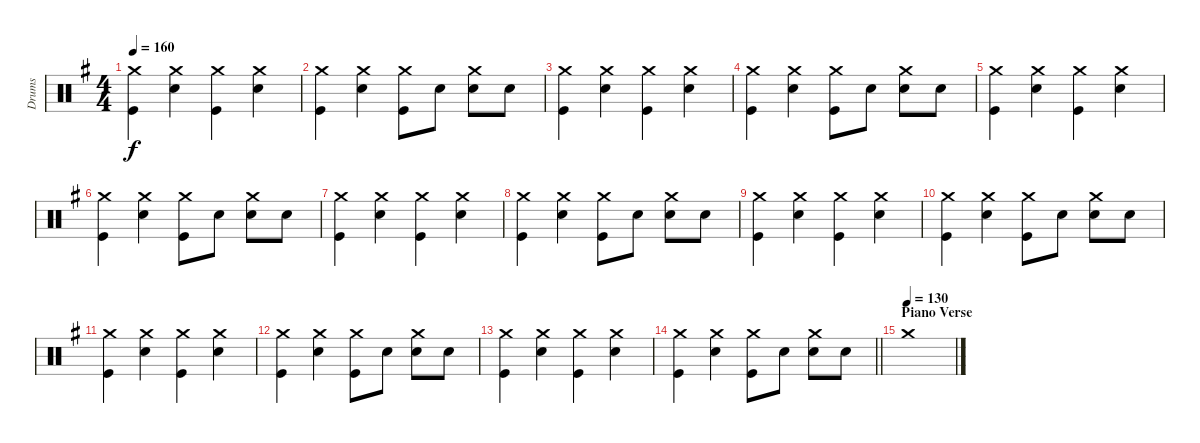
\track ("Drums" "Drums") {instrument percussion}
\staff {score}
\articulation defaults
\ts (4 4)
\tempo 160
\clef neutral
\ks eminor
("Crash medium (hit)" "Kick (hit)").4{dy f} ("Crash medium (hit)" "Snare (hit) 2").4 ("Crash medium (hit)" "Kick (hit)").4 ("Crash medium (hit)" "Snare (hit) 2").4 |
("Crash medium (hit)" "Kick (hit)").4 ("Crash medium (hit)" "Snare (hit) 2").4 ("Crash medium (hit)" "Kick (hit)").8 "Snare (hit) 2".8 ("Crash medium (hit)" "Snare (hit) 2").8 "Snare (hit) 2".8 |
("Crash medium (hit)" "Kick (hit)").4 ("Crash medium (hit)" "Snare (hit) 2").4 ("Crash medium (hit)" "Kick (hit)").4 ("Crash medium (hit)" "Snare (hit) 2").4 |
("Crash medium (hit)" "Kick (hit)").4 ("Crash medium (hit)" "Snare (hit) 2").4 ("Crash medium (hit)" "Kick (hit)").8 "Snare (hit) 2".8 ("Crash medium (hit)" "Snare (hit) 2").8 "Snare (hit) 2".8 |
("Crash medium (hit)" "Kick (hit)").4 ("Crash medium (hit)" "Snare (hit) 2").4 ("Crash medium (hit)" "Kick (hit)").4 ("Crash medium (hit)" "Snare (hit) 2").4 |
("Crash medium (hit)" "Kick (hit)").4 ("Crash medium (hit)" "Snare (hit) 2").4 ("Crash medium (hit)" "Kick (hit)").8 "Snare (hit) 2".8 ("Crash medium (hit)" "Snare (hit) 2").8 "Snare (hit) 2".8 |
("Crash medium (hit)" "Kick (hit)").4 ("Crash medium (hit)" "Snare (hit) 2").4 ("Crash medium (hit)" "Kick (hit)").4 ("Crash medium (hit)" "Snare (hit) 2").4 |
("Crash medium (hit)" "Kick (hit)").4 ("Crash medium (hit)" "Snare (hit) 2").4 ("Crash medium (hit)" "Kick (hit)").8 "Snare (hit) 2".8 ("Crash medium (hit)" "Snare (hit) 2").8 "Snare (hit) 2".8 |
("Crash medium (hit)" "Kick (hit)").4 ("Crash medium (hit)" "Snare (hit) 2").4 ("Crash medium (hit)" "Kick (hit)").4 ("Crash medium (hit)" "Snare (hit) 2").4 |
("Crash medium (hit)" "Kick (hit)").4 ("Crash medium (hit)" "Snare (hit) 2").4 ("Crash medium (hit)" "Kick (hit)").8 "Snare (hit) 2".8 ("Crash medium (hit)" "Snare (hit) 2").8 "Snare (hit) 2".8 |
("Crash medium (hit)" "Kick (hit)").4 ("Crash medium (hit)" "Snare (hit) 2").4 ("Crash medium (hit)" "Kick (hit)").4 ("Crash medium (hit)" "Snare (hit) 2").4 |
("Crash medium (hit)" "Kick (hit)").4 ("Crash medium (hit)" "Snare (hit) 2").4 ("Crash medium (hit)" "Kick (hit)").8 "Snare (hit) 2".8 ("Crash medium (hit)" "Snare (hit) 2").8 "Snare (hit) 2".8 |
("Crash medium (hit)" "Kick (hit)").4 ("Crash medium (hit)" "Snare (hit) 2").4 ("Crash medium (hit)" "Kick (hit)").4 ("Crash medium (hit)" "Snare (hit) 2").4 |
\barLineRight lightlight
("Crash medium (hit)" "Kick (hit)").4 ("Crash medium (hit)" "Snare (hit) 2").4 ("Crash medium (hit)" "Kick (hit)").8 "Snare (hit) 2".8 ("Crash medium (hit)" "Snare (hit) 2").8 "Snare (hit) 2".8 |
\section ("" "Piano Verse")
\tempo (130)
"Crash medium (hit)".1
